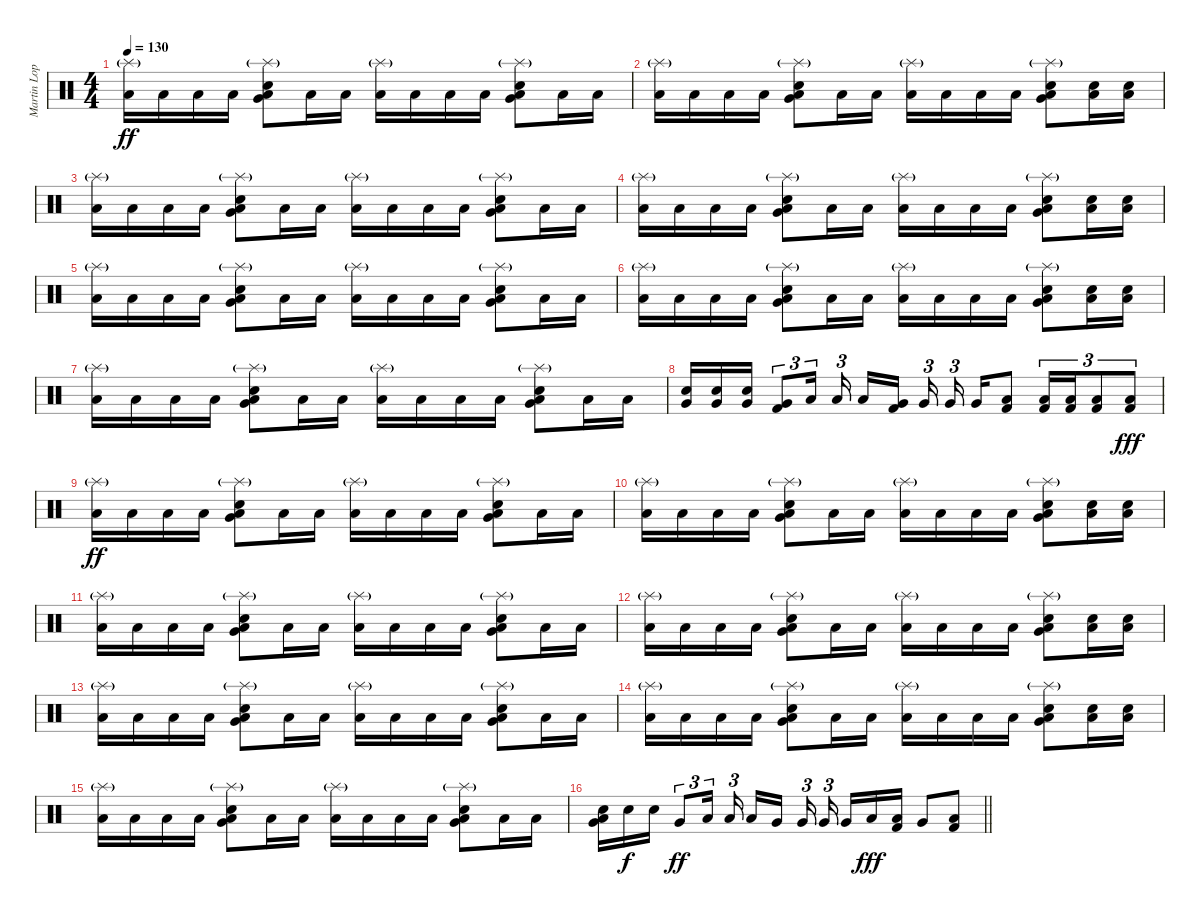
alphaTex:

\track ("Martin Lopez" "Martin Lop") {instrument percussion}
\staff {score}
\articulation defaults
\ts (4 4)
\tempo 130
\clef neutral
\ks c
("Splash (hit)"{g} "Low Floor Tom (hit)").16{dy ff} "Low Floor Tom (hit)".16 "Low Floor Tom (hit)".16 "Low Floor Tom (hit)".16 ("Splash (hit)"{g} "Very Low Tom (hit)" "Snare (hit) 2" "Low Floor Tom (hit)").8 "Low Floor Tom (hit)".16 "Low Floor Tom (hit)".16 ("Splash (hit)"{g} "Low Floor Tom (hit)").16 "Low Floor Tom (hit)".16 "Low Floor Tom (hit)".16 "Low Floor Tom (hit)".16 ("Splash (hit)"{g} "Very Low Tom (hit)" "Snare (hit) 2" "Low Floor Tom (hit)").8 "Low Floor Tom (hit)".16 "Low Floor Tom (hit)".16 |
("Splash (hit)"{g} "Low Floor Tom (hit)").16 "Low Floor Tom (hit)".16 "Low Floor Tom (hit)".16 "Low Floor Tom (hit)".16 ("Splash (hit)"{g} "Very Low Tom (hit)" "Snare (hit) 2" "Low Floor Tom (hit)").8 "Low Floor Tom (hit)".16 "Low Floor Tom (hit)".16 ("Splash (hit)"{g} "Low Floor Tom (hit)").16 "Low Floor Tom (hit)".16 "Low Floor Tom (hit)".16 "Low Floor Tom (hit)".16 ("Splash (hit)"{g} "Very Low Tom (hit)" "Snare (hit) 2" "Low Floor Tom (hit)").8 ("Snare (hit) 2" "Low Floor Tom (hit)").16 ("Snare (hit) 2" "Low Floor Tom (hit)").16 |
("Splash (hit)"{g} "Low Floor Tom (hit)").16 "Low Floor Tom (hit)".16 "Low Floor Tom (hit)".16 "Low Floor Tom (hit)".16 ("Splash (hit)"{g} "Very Low Tom (hit)" "Snare (hit) 2" "Low Floor Tom (hit)").8 "Low Floor Tom (hit)".16 "Low Floor Tom (hit)".16 ("Splash (hit)"{g} "Low Floor Tom (hit)").16 "Low Floor Tom (hit)".16 "Low Floor Tom (hit)".16 "Low Floor Tom (hit)".16 ("Splash (hit)"{g} "Very Low Tom (hit)" "Snare (hit) 2" "Low Floor Tom (hit)").8 "Low Floor Tom (hit)".16 "Low Floor Tom (hit)".16 |
("Splash (hit)"{g} "Low Floor Tom (hit)").16 "Low Floor Tom (hit)".16 "Low Floor Tom (hit)".16 "Low Floor Tom (hit)".16 ("Splash (hit)"{g} "Very Low Tom (hit)" "Snare (hit) 2" "Low Floor Tom (hit)").8 "Low Floor Tom (hit)".16 "Low Floor Tom (hit)".16 ("Splash (hit)"{g} "Low Floor Tom (hit)").16 "Low Floor Tom (hit)".16 "Low Floor Tom (hit)".16 "Low Floor Tom (hit)".16 ("Splash (hit)"{g} "Very Low Tom (hit)" "Snare (hit) 2" "Low Floor Tom (hit)").8 ("Snare (hit) 2" "Low Floor Tom (hit)").16 ("Snare (hit) 2" "Low Floor Tom (hit)").16 |
("Splash (hit)"{g} "Low Floor Tom (hit)").16 "Low Floor Tom (hit)".16 "Low Floor Tom (hit)".16 "Low Floor Tom (hit)".16 ("Splash (hit)"{g} "Very Low Tom (hit)" "Snare (hit) 2" "Low Floor Tom (hit)").8 "Low Floor Tom (hit)".16 "Low Floor Tom (hit)".16 ("Splash (hit)"{g} "Low Floor Tom (hit)").16 "Low Floor Tom (hit)".16 "Low Floor Tom (hit)".16 "Low Floor Tom (hit)".16 ("Splash (hit)"{g} "Very Low Tom (hit)" "Snare (hit) 2" "Low Floor Tom (hit)").8 "Low Floor Tom (hit)".16 "Low Floor Tom (hit)".16 |
("Splash (hit)"{g} "Low Floor Tom (hit)").16 "Low Floor Tom (hit)".16 "Low Floor Tom (hit)".16 "Low Floor Tom (hit)".16 ("Splash (hit)"{g} "Very Low Tom (hit)" "Snare (hit) 2" "Low Floor Tom (hit)").8 "Low Floor Tom (hit)".16 "Low Floor Tom (hit)".16 ("Splash (hit)"{g} "Low Floor Tom (hit)").16 "Low Floor Tom (hit)".16 "Low Floor Tom (hit)".16 "Low Floor Tom (hit)".16 ("Splash (hit)"{g} "Very Low Tom (hit)" "Snare (hit) 2" "Low Floor Tom (hit)").8 ("Snare (hit) 2" "Low Floor Tom (hit)").16 ("Snare (hit) 2" "Low Floor Tom (hit)").16 |
("Splash (hit)"{g} "Low Floor Tom (hit)").16 "Low Floor Tom (hit)".16 "Low Floor Tom (hit)".16 "Low Floor Tom (hit)".16 ("Splash (hit)"{g} "Very Low Tom (hit)" "Snare (hit) 2" "Low Floor Tom (hit)").8 "Low Floor Tom (hit)".16 "Low Floor Tom (hit)".16 ("Splash (hit)"{g} "Low Floor Tom (hit)").16 "Low Floor Tom (hit)".16 "Low Floor Tom (hit)".16 "Low Floor Tom (hit)".16 ("Splash (hit)"{g} "Very Low Tom (hit)" "Snare (hit) 2" "Low Floor Tom (hit)").8 "Low Floor Tom (hit)".16 "Low Floor Tom (hit)".16 |
("Very Low Tom (hit)" "Snare (hit) 2").16 ("Very Low Tom (hit)" "Snare (hit) 2").16 ("Very Low Tom (hit)" "Snare (hit) 2").16 ("Kick (hit) 2" "Very Low Tom (hit)").8{tu (3 2)} "Low Tom (hit)".16{tu (3 2) beam splitsecondary} "Low Tom (hit)".16{tu (3 2) beam splitsecondary} "Low Tom (hit)".16 ("Kick (hit) 2" "Very Low Tom (hit)").16{beam splitsecondary} "Very Low Tom (hit)".16{tu (3 2)} "Very Low Tom (hit)".16{tu (3 2) beam splitsecondary} "Very Low Tom (hit)".16 ("Kick (hit) 2" "Low Floor Tom (hit)").8 ("Kick (hit) 2" "Low Floor Tom (hit)").16{tu (3 2)} ("Kick (hit) 2" "Low Floor Tom (hit)").16{tu (3 2)} ("Kick (hit) 2" "Low Floor Tom (hit)").8{tu (3 2)} ("Kick (hit) 2" "Low Floor Tom (hit)").8{tu (3 2) dy fff} |
("Splash (hit)"{g} "Low Floor Tom (hit)").16{dy ff} "Low Floor Tom (hit)".16 "Low Floor Tom (hit)".16 "Low Floor Tom (hit)".16 ("Splash (hit)"{g} "Very Low Tom (hit)" "Snare (hit) 2" "Low Floor Tom (hit)").8 "Low Floor Tom (hit)".16 "Low Floor Tom (hit)".16 ("Splash (hit)"{g} "Low Floor Tom (hit)").16 "Low Floor Tom (hit)".16 "Low Floor Tom (hit)".16 "Low Floor Tom (hit)".16 ("Splash (hit)"{g} "Very Low Tom (hit)" "Snare (hit) 2" "Low Floor Tom (hit)").8 "Low Floor Tom (hit)".16 "Low Floor Tom (hit)".16 |
("Splash (hit)"{g} "Low Floor Tom (hit)").16 "Low Floor Tom (hit)".16 "Low Floor Tom (hit)".16 "Low Floor Tom (hit)".16 ("Splash (hit)"{g} "Very Low Tom (hit)" "Snare (hit) 2" "Low Floor Tom (hit)").8 "Low Floor Tom (hit)".16 "Low Floor Tom (hit)".16 ("Splash (hit)"{g} "Low Floor Tom (hit)").16 "Low Floor Tom (hit)".16 "Low Floor Tom (hit)".16 "Low Floor Tom (hit)".16 ("Splash (hit)"{g} "Very Low Tom (hit)" "Snare (hit) 2" "Low Floor Tom (hit)").8 ("Snare (hit) 2" "Low Floor Tom (hit)").16 ("Snare (hit) 2" "Low Floor Tom (hit)").16 |
("Splash (hit)"{g} "Low Floor Tom (hit)").16 "Low Floor Tom (hit)".16 "Low Floor Tom (hit)".16 "Low Floor Tom (hit)".16 ("Splash (hit)"{g} "Very Low Tom (hit)" "Snare (hit) 2" "Low Floor Tom (hit)").8 "Low Floor Tom (hit)".16 "Low Floor Tom (hit)".16 ("Splash (hit)"{g} "Low Floor Tom (hit)").16 "Low Floor Tom (hit)".16 "Low Floor Tom (hit)".16 "Low Floor Tom (hit)".16 ("Splash (hit)"{g} "Very Low Tom (hit)" "Snare (hit) 2" "Low Floor Tom (hit)").8 "Low Floor Tom (hit)".16 "Low Floor Tom (hit)".16 |
("Splash (hit)"{g} "Low Floor Tom (hit)").16 "Low Floor Tom (hit)".16 "Low Floor Tom (hit)".16 "Low Floor Tom (hit)".16 ("Splash (hit)"{g} "Very Low Tom (hit)" "Snare (hit) 2" "Low Floor Tom (hit)").8 "Low Floor Tom (hit)".16 "Low Floor Tom (hit)".16 ("Splash (hit)"{g} "Low Floor Tom (hit)").16 "Low Floor Tom (hit)".16 "Low Floor Tom (hit)".16 "Low Floor Tom (hit)".16 ("Splash (hit)"{g} "Very Low Tom (hit)" "Snare (hit) 2" "Low Floor Tom (hit)").8 ("Snare (hit) 2" "Low Floor Tom (hit)").16 ("Snare (hit) 2" "Low Floor Tom (hit)").16 |
("Splash (hit)"{g} "Low Floor Tom (hit)").16 "Low Floor Tom (hit)".16 "Low Floor Tom (hit)".16 "Low Floor Tom (hit)".16 ("Splash (hit)"{g} "Very Low Tom (hit)" "Snare (hit) 2" "Low Floor Tom (hit)").8 "Low Floor Tom (hit)".16 "Low Floor Tom (hit)".16 ("Splash (hit)"{g} "Low Floor Tom (hit)").16 "Low Floor Tom (hit)".16 "Low Floor Tom (hit)".16 "Low Floor Tom (hit)".16 ("Splash (hit)"{g} "Very Low Tom (hit)" "Snare (hit) 2" "Low Floor Tom (hit)").8 "Low Floor Tom (hit)".16 "Low Floor Tom (hit)".16 |
("Splash (hit)"{g} "Low Floor Tom (hit)").16 "Low Floor Tom (hit)".16 "Low Floor Tom (hit)".16 "Low Floor Tom (hit)".16 ("Splash (hit)"{g} "Very Low Tom (hit)" "Snare (hit) 2" "Low Floor Tom (hit)").8 "Low Floor Tom (hit)".16 "Low Floor Tom (hit)".16 ("Splash (hit)"{g} "Low Floor Tom (hit)").16 "Low Floor Tom (hit)".16 "Low Floor Tom (hit)".16 "Low Floor Tom (hit)".16 ("Splash (hit)"{g} "Very Low Tom (hit)" "Snare (hit) 2" "Low Floor Tom (hit)").8 ("Snare (hit) 2" "Low Floor Tom (hit)").16 ("Snare (hit) 2" "Low Floor Tom (hit)").16 |
("Splash (hit)"{g} "Low Floor Tom (hit)").16 "Low Floor Tom (hit)".16 "Low Floor Tom (hit)".16 "Low Floor Tom (hit)".16 ("Splash (hit)"{g} "Very Low Tom (hit)" "Snare (hit) 2" "Low Floor Tom (hit)").8 "Low Floor Tom (hit)".16 "Low Floor Tom (hit)".16 ("Splash (hit)"{g} "Low Floor Tom (hit)").16 "Low Floor Tom (hit)".16 "Low Floor Tom (hit)".16 "Low Floor Tom (hit)".16 ("Splash (hit)"{g} "Very Low Tom (hit)" "Snare (hit) 2" "Low Floor Tom (hit)").8 "Low Floor Tom (hit)".16 "Low Floor Tom (hit)".16 |
\barLineRight lightlight
("Very Low Tom (hit)" "Snare (hit) 2" "Low Floor Tom (hit)").16 "Snare (hit) 2".16{dy f} "Snare (hit) 2".16 "Very Low Tom (hit)".8{tu (3 2) dy ff} "Low Tom (hit)".16{tu (3 2) beam splitsecondary} "Low Tom (hit)".16{tu (3 2) beam splitsecondary} "Low Tom (hit)".16 "Very Low Tom (hit)".16{beam splitsecondary} "Very Low Tom (hit)".16{tu (3 2)} "Very Low Tom (hit)".16{tu (3 2) beam splitsecondary} "Very Low Tom (hit)".16 "Low Floor Tom (hit)".16{dy fff} ("Kick (hit) 2" "Low Floor Tom (hit)").16 "Very Low Tom (hit)".8 ("Kick (hit) 2" "Low Floor Tom (hit)").8
